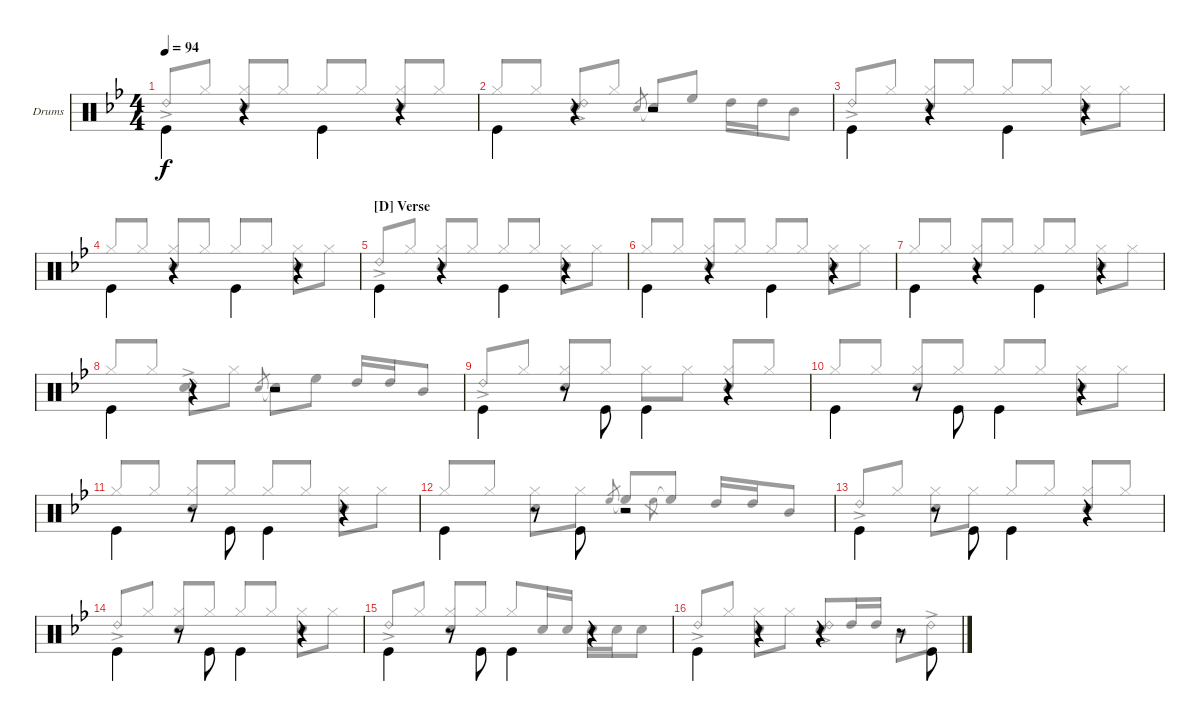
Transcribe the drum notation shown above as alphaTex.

\bracketExtendMode groupsimilarinstruments
\firstSystemTrackNameOrientation horizontal
\otherSystemsTrackNameOrientation horizontal
\track ("Drum" "Drums") {instrument percussion}
\staff {score}
\articulation defaults
\voice
\ts (4 4)
\tempo 94
\clef neutral
\scale
1.04918
\ks bb "Kick (hit)".4{dy f beam invert}
r.4{beam invert} "Kick (hit)".4{beam invert} r.4 |
\scale
0.95082 "Kick (hit)".4{beam invert} r.4{beam invert} r.2 |
\scale
1.04918 "Kick (hit)".4{beam invert} r.4{beam invert} "Kick (hit)".4{beam invert} r.4 |
\scale
0.95082 "Kick (hit)".4{beam invert} r.4{beam invert} "Kick (hit)".4{beam invert} r.4 |
\section ("D" "Verse")
\scale
1.04918 "Kick (hit)".4{beam invert} r.4{beam invert} "Kick (hit)".4{beam invert} r.4 |
\scale
0.95082 "Kick (hit)".4{beam invert} r.4{beam invert} "Kick (hit)".4{beam invert} r.4 |
\scale
1.04918 "Kick (hit)".4{beam invert} r.4{beam invert} "Kick (hit)".4{beam invert} r.4 |
\scale
0.95082 "Kick (hit)".4{beam invert} r.4{beam invert} r.2 |
\scale
1.04918 "Kick (hit)".4{beam invert} r.8 "Kick (hit)".8{beam invert} "Kick (hit)".4{beam invert} r.4 |
\scale
0.95082 "Kick (hit)".4{beam invert} r.8 "Kick (hit)".8{beam invert} "Kick (hit)".4{beam invert} r.4 |
\scale
1.04918 "Kick (hit)".4{beam invert} r.8 "Kick (hit)".8{beam invert} "Kick (hit)".4{beam invert} r.4 |
\scale
0.95082 "Kick (hit)".4{beam invert} r.8 "Kick (hit)".8{beam invert} r.2 |
\scale
1.04918 "Kick (hit)".4{beam invert} r.8 "Kick (hit)".8{beam invert} "Kick (hit)".4{beam invert} r.4 |
\scale
0.95082 "Kick (hit)".4{beam invert} r.8 "Kick (hit)".8{beam invert} "Kick (hit)".4{beam invert} r.4 |
\scale
1.04918 "Kick (hit)".4{beam invert} r.8 "Kick (hit)".8{beam invert} "Kick (hit)".4{beam invert} r.4 |
\scale
0.95082 "Kick (hit)".4{beam invert} r.4 r.4{beam invert} r.8{beam invert} "Kick (hit)".8{beam invert}
\voice
\clef neutral
\ottava regular
\simile none
\scale
1.04918
\ks bb "Ride (bell) 2"{ac}.8{dy f} "Hi-Hat (closed)".8
("Hi-Hat (closed)" "Snare (hit) 2").8{beam invert} "Hi-Hat (closed)".8 "Hi-Hat (closed)".8 "Hi-Hat (closed)".8 ("Hi-Hat (closed)" "Snare (hit) 2").8{beam invert} "Hi-Hat (closed)".8 |
\scale
0.95082 "Hi-Hat (closed)".8 "Hi-Hat (closed)".8 ("Snare (hit) 2" "Ride (bell) 2"{ac}).8{beam invert} "Hi-Hat (closed)".8 "Snare (hit) 2".8{gr beam invert} "Snare (hit) 2"{t}.8 "High Floor Tom (hit)".8{beam invert} "High Tom (hit)".16 "High Tom (hit)".16 "Mid Tom (hit)".8 |
\scale
1.04918 "Ride (bell) 2"{ac}.8{beam invert} "Hi-Hat (closed)".8 ("Hi-Hat (closed)" "Snare (hit) 2").8 "Hi-Hat (closed)".8 "Hi-Hat (closed)".8{beam invert} "Hi-Hat (closed)".8 ("Hi-Hat (closed)" "Snare (hit) 2").8 "Hi-Hat (closed)".8 |
\scale
0.95082 "Hi-Hat (closed)".8{beam invert} "Hi-Hat (closed)".8 ("Hi-Hat (closed)" "Snare (hit) 2").8 "Hi-Hat (closed)".8 "Hi-Hat (closed)".8{beam invert} "Hi-Hat (closed)".8 ("Hi-Hat (closed)" "Snare (hit) 2").8 "Hi-Hat (closed)".8 |
\scale
1.04918 "Ride (bell) 2"{ac}.8{beam invert} "Hi-Hat (closed)".8 ("Hi-Hat (closed)" "Snare (hit) 2").8 "Hi-Hat (closed)".8 "Hi-Hat (closed)".8{beam invert} "Hi-Hat (closed)".8 ("Hi-Hat (closed)" "Snare (hit) 2").8 "Hi-Hat (closed)".8 |
\scale
0.95082 "Hi-Hat (closed)".8{beam invert} "Hi-Hat (closed)".8 ("Hi-Hat (closed)" "Snare (hit) 2").8 "Hi-Hat (closed)".8 "Hi-Hat (closed)".8{beam invert} "Hi-Hat (closed)".8 ("Hi-Hat (closed)" "Snare (hit) 2").8 "Hi-Hat (closed)".8 |
\scale
1.04918 "Hi-Hat (closed)".8{beam invert} "Hi-Hat (closed)".8 ("Hi-Hat (closed)" "Snare (hit) 2").8 "Hi-Hat (closed)".8 "Hi-Hat (closed)".8{beam invert} "Hi-Hat (closed)".8 ("Hi-Hat (closed)" "Snare (hit) 2").8 "Hi-Hat (closed)".8 |
\scale
0.95082 "Hi-Hat (closed)".8{beam invert} "Hi-Hat (closed)".8 ("Ride (bell) 2"{ac} "Snare (hit) 2").8 "Hi-Hat (closed)".8 "Snare (hit) 2".8{gr beam invert} "Snare (hit) 2"{t}.8 "High Floor Tom (hit)".8 "High Tom (hit)".16 "High Tom (hit)".16{beam invert} "Mid Tom (hit)".8 |
\scale
1.04918 "Ride (bell) 2"{ac}.8 "Hi-Hat (closed)".8 ("Hi-Hat (closed)" "Snare (hit) 2").8{beam invert} "Hi-Hat (closed)".8 "Hi-Hat (closed)".8 "Hi-Hat (closed)".8 ("Hi-Hat (closed)" "Snare (hit) 2").8 "Hi-Hat (closed)".8{beam invert} |
\scale
0.95082 "Hi-Hat (closed)".8{beam invert} "Hi-Hat (closed)".8 ("Hi-Hat (closed)" "Snare (hit) 2").8 "Hi-Hat (closed)".8 "Hi-Hat (closed)".8{beam invert} "Hi-Hat (closed)".8 ("Hi-Hat (closed)" "Snare (hit) 2").8 "Hi-Hat (closed)".8 |
\scale
1.04918 "Hi-Hat (closed)".8{beam invert} "Hi-Hat (closed)".8 ("Hi-Hat (closed)" "Snare (hit) 2").8 "Hi-Hat (closed)".8 "Hi-Hat (closed)".8{beam invert} "Hi-Hat (closed)".8 ("Hi-Hat (closed)" "Snare (hit) 2").8 "Hi-Hat (closed)".8 |
\scale
0.95082 "Hi-Hat (closed)".8{beam invert} "Hi-Hat (closed)".8 ("Hi-Hat (closed)" "Snare (hit) 2").8 "Hi-Hat (closed)".8 "High Floor Tom (hit)".8{gr beam invert} "High Floor Tom (hit)"{t}.8 "High Floor Tom (hit)".8{gr} "High Floor Tom (hit)"{t}.8 "High Tom (hit)".16{beam invert} "High Tom (hit)".16 "Mid Tom (hit)".8 |
\scale
1.04918 "Ride (bell) 2"{ac}.8 "Hi-Hat (closed)".8{beam invert} ("Hi-Hat (closed)" "Snare (hit) 2").8 "Hi-Hat (closed)".8 "Hi-Hat (closed)".8 "Hi-Hat (closed)".8 ("Hi-Hat (closed)" "Snare (hit) 2").8{beam invert} "Hi-Hat (closed)".8 |
\scale
0.95082 "Ride (bell) 2"{ac}.8{beam invert} "Hi-Hat (closed)".8 ("Hi-Hat (closed)" "Snare (hit) 2").8 "Hi-Hat (closed)".8 "Hi-Hat (closed)".8{beam invert} "Hi-Hat (closed)".8 ("Hi-Hat (closed)" "Snare (hit) 2").8 "Hi-Hat (closed)".8 |
\scale
1.04918 "Ride (bell) 2"{ac}.8{beam invert} "Hi-Hat (closed)".8 ("Hi-Hat (closed)" "Snare (hit) 2").8 "Hi-Hat (closed)".8 "Hi-Hat (closed)".8{beam invert} "Snare (hit) 2".16 "Snare (hit) 2".16 "Snare (hit) 2".16 "Snare (hit) 2".16 "Snare (hit) 2".8 |
\scale
0.95082 "Ride (bell) 2"{ac}.8{beam invert} "Hi-Hat (closed)".8 ("Hi-Hat (closed)" "Snare (hit) 2").8 "Hi-Hat (closed)".8 ("Snare (hit) 2" "Ride (bell) 2"{ac}).8 "High Tom (hit)".16 "High Tom (hit)".16{beam invert} "Mid Tom (hit)".8 "Ride (bell) 2"{ac}.8
